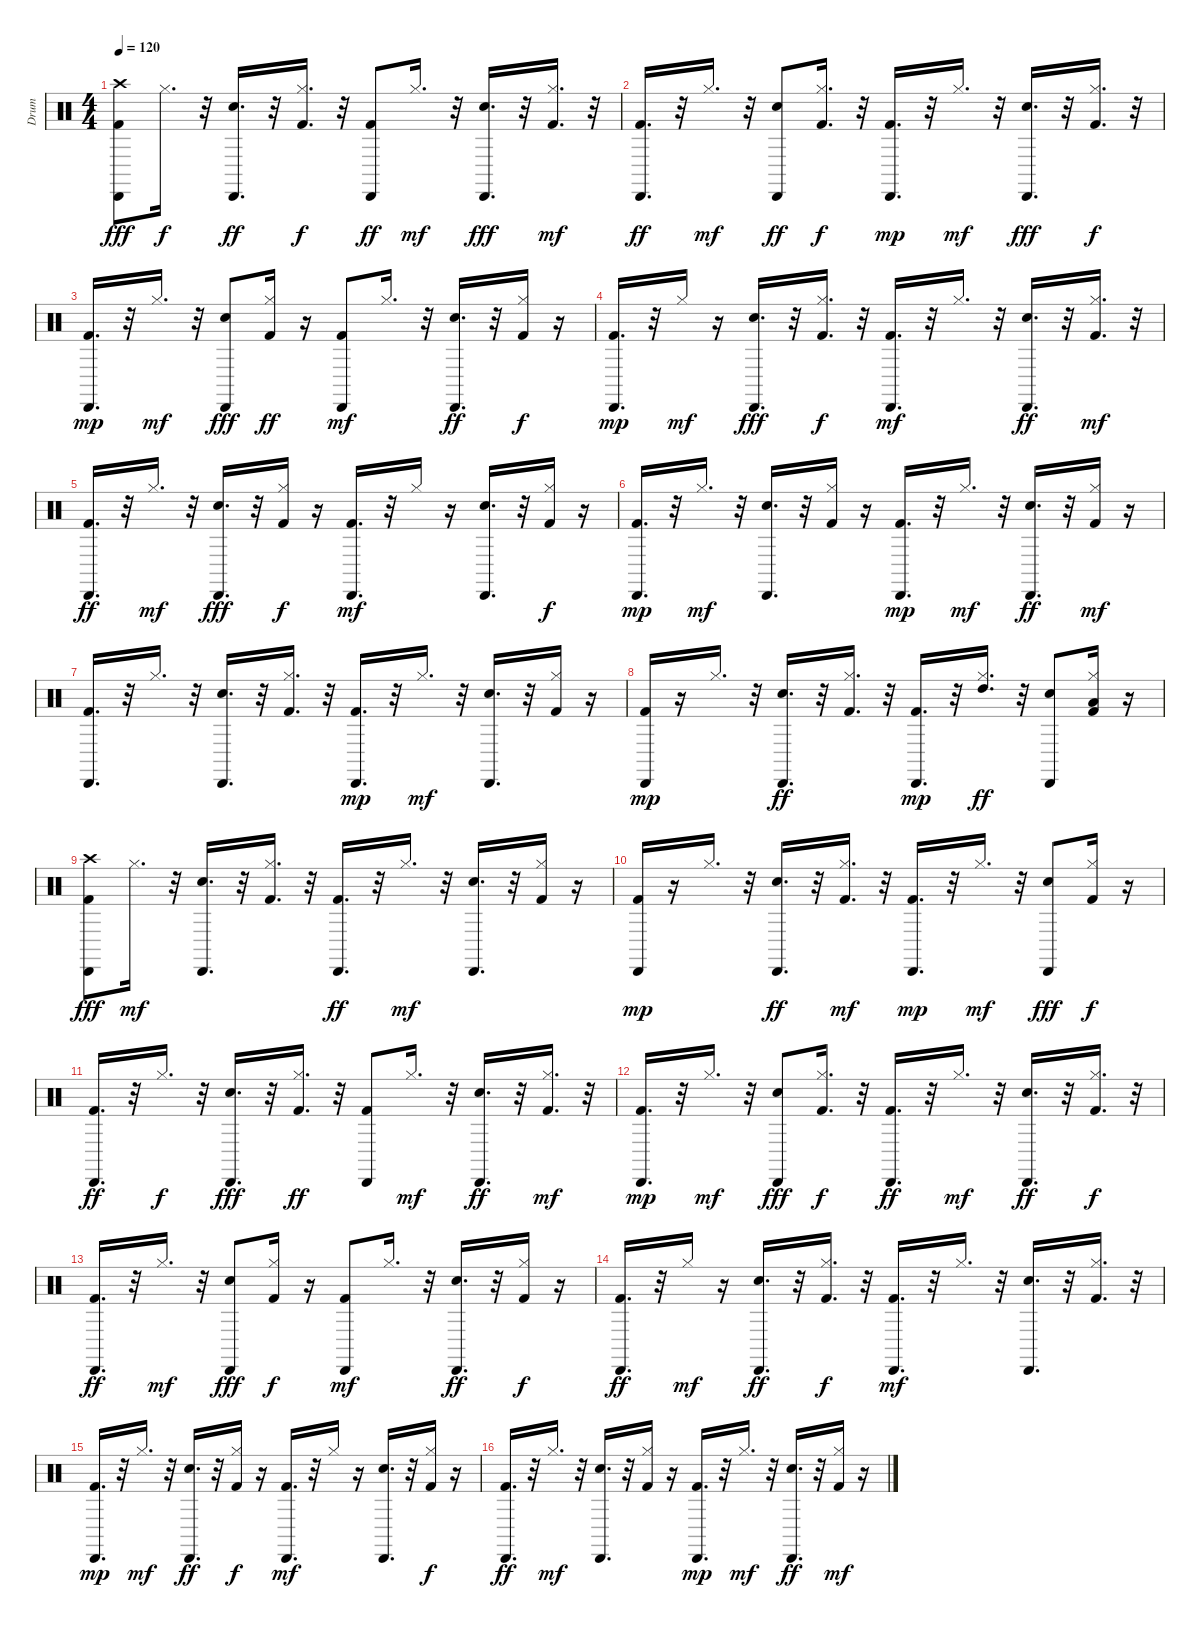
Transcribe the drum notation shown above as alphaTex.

\track ("Drum" "Drum") {instrument percussion}
\staff {score}
\articulation defaults
\ts (4 4)
\tempo 120
\clef neutral
\ks c
("Kick (hit) 2" "Cabasa (hit)" "Crash high (hit)").8{dy fff} "Hi-Hat (closed)".16{d dy f} r.32 ("Snare (hit) 2" "Cabasa (hit)").16{d dy ff} r.32 ("Hi-Hat (closed)" "Kick (hit) 2").16{d dy f} r.32 ("Cabasa (hit)" "Kick (hit) 2").8{dy ff} "Hi-Hat (closed)".16{d dy mf} r.32 ("Cabasa (hit)" "Snare (hit) 2").16{d dy fff} r.32 ("Hi-Hat (closed)" "Kick (hit) 2").16{d dy mf} r.32 |
("Cabasa (hit)" "Kick (hit) 2").16{d dy ff} r.32 "Hi-Hat (closed)".16{d dy mf} r.32 ("Snare (hit) 2" "Cabasa (hit)").8{dy ff} ("Kick (hit) 2" "Hi-Hat (closed)").16{d dy f} r.32 ("Kick (hit) 2" "Cabasa (hit)").16{d dy mp} r.32 "Hi-Hat (closed)".16{d dy mf} r.32 ("Snare (hit) 2" "Cabasa (hit)").16{d dy fff} r.32 ("Hi-Hat (closed)" "Kick (hit) 2").16{d dy f} r.32 |
("Kick (hit) 2" "Cabasa (hit)").16{d dy mp} r.32 "Hi-Hat (closed)".16{d dy mf} r.32 ("Snare (hit) 2" "Cabasa (hit)").8{dy fff} ("Kick (hit) 2" "Hi-Hat (closed)").16{dy ff} r.16 ("Kick (hit) 2" "Cabasa (hit)").8{dy mf} "Hi-Hat (closed)".16{d} r.32 ("Snare (hit) 2" "Cabasa (hit)").16{d dy ff} r.32 ("Kick (hit) 2" "Hi-Hat (closed)").16{dy f} r.16 |
("Cabasa (hit)" "Kick (hit) 2").16{d dy mp} r.32 "Hi-Hat (closed)".16{dy mf} r.16 ("Snare (hit) 2" "Cabasa (hit)").16{d dy fff} r.32 ("Hi-Hat (closed)" "Kick (hit) 2").16{d dy f} r.32 ("Kick (hit) 2" "Cabasa (hit)").16{d dy mf} r.32 "Hi-Hat (closed)".16{d} r.32 ("Cabasa (hit)" "Snare (hit) 2").16{d dy ff} r.32 ("Kick (hit) 2" "Hi-Hat (closed)").16{d dy mf} r.32 |
("Cabasa (hit)" "Kick (hit) 2").16{d dy ff} r.32 "Hi-Hat (closed)".16{d dy mf} r.32 ("Snare (hit) 2" "Cabasa (hit)").16{d dy fff} r.32 ("Kick (hit) 2" "Hi-Hat (closed)").16{dy f} r.16 ("Kick (hit) 2" "Cabasa (hit)").16{d dy mf} r.32 "Hi-Hat (closed)".16 r.16 ("Snare (hit) 2" "Cabasa (hit)").16{d} r.32 ("Kick (hit) 2" "Hi-Hat (closed)").16{dy f} r.16 |
("Kick (hit) 2" "Cabasa (hit)").16{d dy mp} r.32 "Hi-Hat (closed)".16{d dy mf} r.32 ("Snare (hit) 2" "Cabasa (hit)").16{d} r.32 ("Hi-Hat (closed)" "Kick (hit) 2").16 r.16 ("Kick (hit) 2" "Cabasa (hit)").16{d dy mp} r.32 "Hi-Hat (closed)".16{d dy mf} r.32 ("Snare (hit) 2" "Cabasa (hit)").16{d dy ff} r.32 ("Kick (hit) 2" "Hi-Hat (closed)").16{dy mf} r.16 |
("Kick (hit) 2" "Cabasa (hit)").16{d} r.32 "Hi-Hat (closed)".16{d} r.32 ("Snare (hit) 2" "Cabasa (hit)").16{d} r.32 ("Kick (hit) 2" "Hi-Hat (closed)").16{d} r.32 ("Kick (hit) 2" "Cabasa (hit)").16{d dy mp} r.32 "Hi-Hat (closed)".16{d dy mf} r.32 ("Snare (hit) 2" "Cabasa (hit)").16{d} r.32 ("Kick (hit) 2" "Hi-Hat (closed)").16 r.16 |
("Kick (hit) 2" "Cabasa (hit)").16{dy mp} r.16 "Hi-Hat (closed)".16{d} r.32 ("Snare (hit) 2" "Cabasa (hit)").16{d dy ff} r.32 ("Hi-Hat (closed)" "Kick (hit) 2").16{d} r.32 ("Kick (hit) 2" "Cabasa (hit)").16{d dy mp} r.32 ("Hi-Hat (closed)" "High Tom (hit)").16{d dy ff} r.32 ("Cabasa (hit)" "Snare (hit) 2").8 ("Hi-Hat (closed)" "Kick (hit) 2" "Low Tom (hit)").16 r.16 |
("Kick (hit) 2" "Cabasa (hit)" "Crash high (hit)").8{dy fff} "Hi-Hat (closed)".16{d dy mf} r.32 ("Snare (hit) 2" "Cabasa (hit)").16{d} r.32 ("Kick (hit) 2" "Hi-Hat (closed)").16{d} r.32 ("Cabasa (hit)" "Kick (hit) 2").16{d dy ff} r.32 "Hi-Hat (closed)".16{d dy mf} r.32 ("Snare (hit) 2" "Cabasa (hit)").16{d} r.32 ("Hi-Hat (closed)" "Kick (hit) 2").16 r.16 |
("Kick (hit) 2" "Cabasa (hit)").16{dy mp} r.16 "Hi-Hat (closed)".16{d} r.32 ("Snare (hit) 2" "Cabasa (hit)").16{d dy ff} r.32 ("Kick (hit) 2" "Hi-Hat (closed)").16{d dy mf} r.32 ("Kick (hit) 2" "Cabasa (hit)").16{d dy mp} r.32 "Hi-Hat (closed)".16{d dy mf} r.32 ("Cabasa (hit)" "Snare (hit) 2").8{dy fff} ("Hi-Hat (closed)" "Kick (hit) 2").16{dy f} r.16 |
("Kick (hit) 2" "Cabasa (hit)").16{d dy ff} r.32 "Hi-Hat (closed)".16{d dy f} r.32 ("Snare (hit) 2" "Cabasa (hit)").16{d dy fff} r.32 ("Hi-Hat (closed)" "Kick (hit) 2").16{d dy ff} r.32 ("Cabasa (hit)" "Kick (hit) 2").8 "Hi-Hat (closed)".16{d dy mf} r.32 ("Cabasa (hit)" "Snare (hit) 2").16{d dy ff} r.32 ("Hi-Hat (closed)" "Kick (hit) 2").16{d dy mf} r.32 |
("Cabasa (hit)" "Kick (hit) 2").16{d dy mp} r.32 "Hi-Hat (closed)".16{d dy mf} r.32 ("Snare (hit) 2" "Cabasa (hit)").8{dy fff} ("Hi-Hat (closed)" "Kick (hit) 2").16{d dy f} r.32 ("Cabasa (hit)" "Kick (hit) 2").16{d dy ff} r.32 "Hi-Hat (closed)".16{d dy mf} r.32 ("Snare (hit) 2" "Cabasa (hit)").16{d dy ff} r.32 ("Hi-Hat (closed)" "Kick (hit) 2").16{d dy f} r.32 |
("Cabasa (hit)" "Kick (hit) 2").16{d dy ff} r.32 "Hi-Hat (closed)".16{d dy mf} r.32 ("Snare (hit) 2" "Cabasa (hit)").8{dy fff} ("Kick (hit) 2" "Hi-Hat (closed)").16{dy f} r.16 ("Kick (hit) 2" "Cabasa (hit)").8{dy mf} "Hi-Hat (closed)".16{d} r.32 ("Snare (hit) 2" "Cabasa (hit)").16{d dy ff} r.32 ("Kick (hit) 2" "Hi-Hat (closed)").16{dy f} r.16 |
("Cabasa (hit)" "Kick (hit) 2").16{d dy ff} r.32 "Hi-Hat (closed)".16{dy mf} r.16 ("Snare (hit) 2" "Cabasa (hit)").16{d dy ff} r.32 ("Hi-Hat (closed)" "Kick (hit) 2").16{d dy f} r.32 ("Kick (hit) 2" "Cabasa (hit)").16{d dy mf} r.32 "Hi-Hat (closed)".16{d} r.32 ("Snare (hit) 2" "Cabasa (hit)").16{d} r.32 ("Kick (hit) 2" "Hi-Hat (closed)").16{d} r.32 |
("Kick (hit) 2" "Cabasa (hit)").16{d dy mp} r.32 "Hi-Hat (closed)".16{d dy mf} r.32 ("Snare (hit) 2" "Cabasa (hit)").16{d dy ff} r.32 ("Kick (hit) 2" "Hi-Hat (closed)").16{dy f} r.16 ("Kick (hit) 2" "Cabasa (hit)").16{d dy mf} r.32 "Hi-Hat (closed)".16 r.16 ("Snare (hit) 2" "Cabasa (hit)").16{d} r.32 ("Kick (hit) 2" "Hi-Hat (closed)").16{dy f} r.16 |
("Cabasa (hit)" "Kick (hit) 2").16{d dy ff} r.32 "Hi-Hat (closed)".16{d dy mf} r.32 ("Snare (hit) 2" "Cabasa (hit)").16{d} r.32 ("Kick (hit) 2" "Hi-Hat (closed)").16 r.16 ("Kick (hit) 2" "Cabasa (hit)").16{d dy mp} r.32 "Hi-Hat (closed)".16{d dy mf} r.32 ("Snare (hit) 2" "Cabasa (hit)").16{d dy ff} r.32 ("Kick (hit) 2" "Hi-Hat (closed)").16{dy mf} r.16
